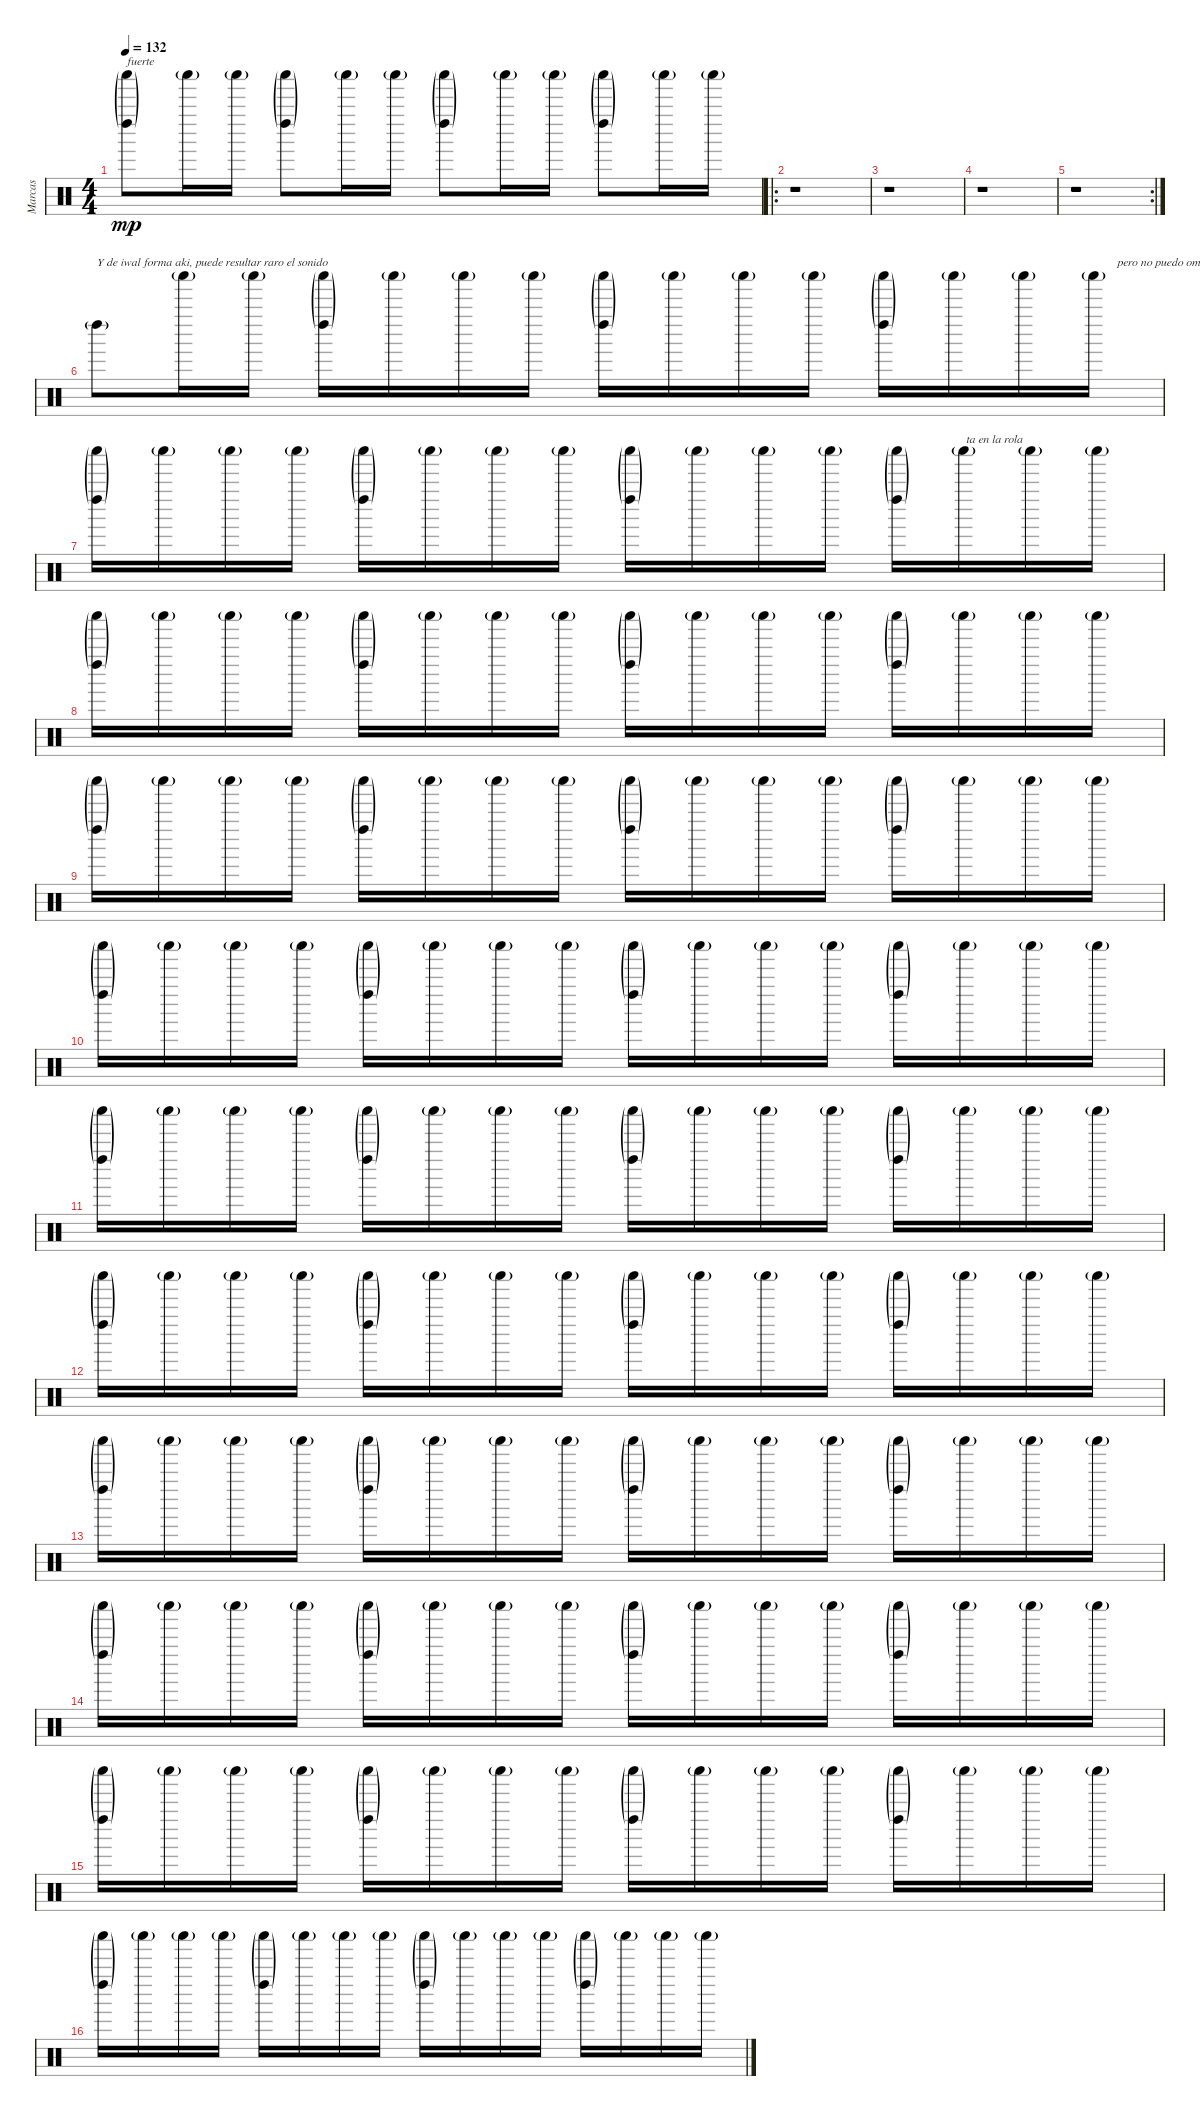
\track ("Marcas" "Marcas") {instrument percussion}
\staff {score}
\articulation defaults
\ts (4 4)
\tempo 132
\clef neutral
\ks c
("Shaker (hit)"{g} "Left Maraca (hit)"{g}).8{txt "fuerte" dy mp} "Shaker (hit)"{g}.16 "Shaker (hit)"{g}.16 ("Shaker (hit)"{g} "Left Maraca (hit)"{g}).8 "Shaker (hit)"{g}.16 "Shaker (hit)"{g}.16 ("Shaker (hit)"{g} "Left Maraca (hit)"{g}).8 "Shaker (hit)"{g}.16 "Shaker (hit)"{g}.16 ("Shaker (hit)"{g} "Left Maraca (hit)"{g}).8 "Shaker (hit)"{g}.16 "Shaker (hit)"{g}.16 |
\ro
r.1 |
r.1 |
r.1 |
\rc 2
r.1 |
"Left Maraca (hit)"{g}.8{txt "Y de iwal forma aki, puede resultar raro el sonido" volume 11} "Shaker (hit)"{g}.16 "Shaker (hit)"{g}.16 ("Shaker (hit)"{g} "Left Maraca (hit)"{g}).16 "Shaker (hit)"{g}.16 "Shaker (hit)"{g}.16 "Shaker (hit)"{g}.16 ("Shaker (hit)"{g} "Left Maraca (hit)"{g}).16 "Shaker (hit)"{g}.16 "Shaker (hit)"{g}.16 "Shaker (hit)"{g}.16 ("Shaker (hit)"{g} "Left Maraca (hit)"{g}).16 "Shaker (hit)"{g}.16 "Shaker (hit)"{g}.16 "Shaker (hit)"{g}.16{txt "        pero no puedo omitir un instrumento que es"} |
("Shaker (hit)"{g} "Left Maraca (hit)"{g}).16 "Shaker (hit)"{g}.16 "Shaker (hit)"{g}.16 "Shaker (hit)"{g}.16 ("Shaker (hit)"{g} "Left Maraca (hit)"{g}).16 "Shaker (hit)"{g}.16 "Shaker (hit)"{g}.16 "Shaker (hit)"{g}.16 ("Shaker (hit)"{g} "Left Maraca (hit)"{g}).16 "Shaker (hit)"{g}.16 "Shaker (hit)"{g}.16 "Shaker (hit)"{g}.16 ("Shaker (hit)"{g} "Left Maraca (hit)"{g}).16 "Shaker (hit)"{g}.16{txt " ta en la rola "} "Shaker (hit)"{g}.16 "Shaker (hit)"{g}.16 |
("Shaker (hit)"{g} "Left Maraca (hit)"{g}).16 "Shaker (hit)"{g}.16 "Shaker (hit)"{g}.16 "Shaker (hit)"{g}.16 ("Shaker (hit)"{g} "Left Maraca (hit)"{g}).16 "Shaker (hit)"{g}.16 "Shaker (hit)"{g}.16 "Shaker (hit)"{g}.16 ("Shaker (hit)"{g} "Left Maraca (hit)"{g}).16 "Shaker (hit)"{g}.16 "Shaker (hit)"{g}.16 "Shaker (hit)"{g}.16 ("Shaker (hit)"{g} "Left Maraca (hit)"{g}).16 "Shaker (hit)"{g}.16 "Shaker (hit)"{g}.16 "Shaker (hit)"{g}.16 |
("Shaker (hit)"{g} "Left Maraca (hit)"{g}).16 "Shaker (hit)"{g}.16 "Shaker (hit)"{g}.16 "Shaker (hit)"{g}.16 ("Shaker (hit)"{g} "Left Maraca (hit)"{g}).16 "Shaker (hit)"{g}.16 "Shaker (hit)"{g}.16 "Shaker (hit)"{g}.16 ("Shaker (hit)"{g} "Left Maraca (hit)"{g}).16 "Shaker (hit)"{g}.16 "Shaker (hit)"{g}.16 "Shaker (hit)"{g}.16 ("Shaker (hit)"{g} "Left Maraca (hit)"{g}).16 "Shaker (hit)"{g}.16 "Shaker (hit)"{g}.16 "Shaker (hit)"{g}.16 |
("Shaker (hit)"{g} "Left Maraca (hit)"{g}).16 "Shaker (hit)"{g}.16 "Shaker (hit)"{g}.16 "Shaker (hit)"{g}.16 ("Shaker (hit)"{g} "Left Maraca (hit)"{g}).16 "Shaker (hit)"{g}.16 "Shaker (hit)"{g}.16 "Shaker (hit)"{g}.16 ("Shaker (hit)"{g} "Left Maraca (hit)"{g}).16 "Shaker (hit)"{g}.16 "Shaker (hit)"{g}.16 "Shaker (hit)"{g}.16 ("Shaker (hit)"{g} "Left Maraca (hit)"{g}).16 "Shaker (hit)"{g}.16 "Shaker (hit)"{g}.16 "Shaker (hit)"{g}.16 |
("Shaker (hit)"{g} "Left Maraca (hit)"{g}).16 "Shaker (hit)"{g}.16 "Shaker (hit)"{g}.16 "Shaker (hit)"{g}.16 ("Shaker (hit)"{g} "Left Maraca (hit)"{g}).16 "Shaker (hit)"{g}.16 "Shaker (hit)"{g}.16 "Shaker (hit)"{g}.16 ("Shaker (hit)"{g} "Left Maraca (hit)"{g}).16 "Shaker (hit)"{g}.16 "Shaker (hit)"{g}.16 "Shaker (hit)"{g}.16 ("Shaker (hit)"{g} "Left Maraca (hit)"{g}).16 "Shaker (hit)"{g}.16 "Shaker (hit)"{g}.16 "Shaker (hit)"{g}.16 |
("Shaker (hit)"{g} "Left Maraca (hit)"{g}).16 "Shaker (hit)"{g}.16 "Shaker (hit)"{g}.16 "Shaker (hit)"{g}.16 ("Shaker (hit)"{g} "Left Maraca (hit)"{g}).16 "Shaker (hit)"{g}.16 "Shaker (hit)"{g}.16 "Shaker (hit)"{g}.16 ("Shaker (hit)"{g} "Left Maraca (hit)"{g}).16 "Shaker (hit)"{g}.16 "Shaker (hit)"{g}.16 "Shaker (hit)"{g}.16 ("Shaker (hit)"{g} "Left Maraca (hit)"{g}).16 "Shaker (hit)"{g}.16 "Shaker (hit)"{g}.16 "Shaker (hit)"{g}.16 |
("Shaker (hit)"{g} "Left Maraca (hit)"{g}).16 "Shaker (hit)"{g}.16 "Shaker (hit)"{g}.16 "Shaker (hit)"{g}.16 ("Shaker (hit)"{g} "Left Maraca (hit)"{g}).16 "Shaker (hit)"{g}.16 "Shaker (hit)"{g}.16 "Shaker (hit)"{g}.16 ("Shaker (hit)"{g} "Left Maraca (hit)"{g}).16 "Shaker (hit)"{g}.16 "Shaker (hit)"{g}.16 "Shaker (hit)"{g}.16 ("Shaker (hit)"{g} "Left Maraca (hit)"{g}).16 "Shaker (hit)"{g}.16 "Shaker (hit)"{g}.16 "Shaker (hit)"{g}.16 |
("Shaker (hit)"{g} "Left Maraca (hit)"{g}).16 "Shaker (hit)"{g}.16 "Shaker (hit)"{g}.16 "Shaker (hit)"{g}.16 ("Shaker (hit)"{g} "Left Maraca (hit)"{g}).16 "Shaker (hit)"{g}.16 "Shaker (hit)"{g}.16 "Shaker (hit)"{g}.16 ("Shaker (hit)"{g} "Left Maraca (hit)"{g}).16 "Shaker (hit)"{g}.16 "Shaker (hit)"{g}.16 "Shaker (hit)"{g}.16 ("Shaker (hit)"{g} "Left Maraca (hit)"{g}).16 "Shaker (hit)"{g}.16 "Shaker (hit)"{g}.16 "Shaker (hit)"{g}.16 |
("Shaker (hit)"{g} "Left Maraca (hit)"{g}).16 "Shaker (hit)"{g}.16 "Shaker (hit)"{g}.16 "Shaker (hit)"{g}.16 ("Shaker (hit)"{g} "Left Maraca (hit)"{g}).16 "Shaker (hit)"{g}.16 "Shaker (hit)"{g}.16 "Shaker (hit)"{g}.16 ("Shaker (hit)"{g} "Left Maraca (hit)"{g}).16 "Shaker (hit)"{g}.16 "Shaker (hit)"{g}.16 "Shaker (hit)"{g}.16 ("Shaker (hit)"{g} "Left Maraca (hit)"{g}).16 "Shaker (hit)"{g}.16 "Shaker (hit)"{g}.16 "Shaker (hit)"{g}.16 |
("Shaker (hit)"{g} "Left Maraca (hit)"{g}).16 "Shaker (hit)"{g}.16 "Shaker (hit)"{g}.16 "Shaker (hit)"{g}.16 ("Shaker (hit)"{g} "Left Maraca (hit)"{g}).16 "Shaker (hit)"{g}.16 "Shaker (hit)"{g}.16 "Shaker (hit)"{g}.16 ("Shaker (hit)"{g} "Left Maraca (hit)"{g}).16 "Shaker (hit)"{g}.16 "Shaker (hit)"{g}.16 "Shaker (hit)"{g}.16 ("Shaker (hit)"{g} "Left Maraca (hit)"{g}).16 "Shaker (hit)"{g}.16 "Shaker (hit)"{g}.16 "Shaker (hit)"{g}.16
